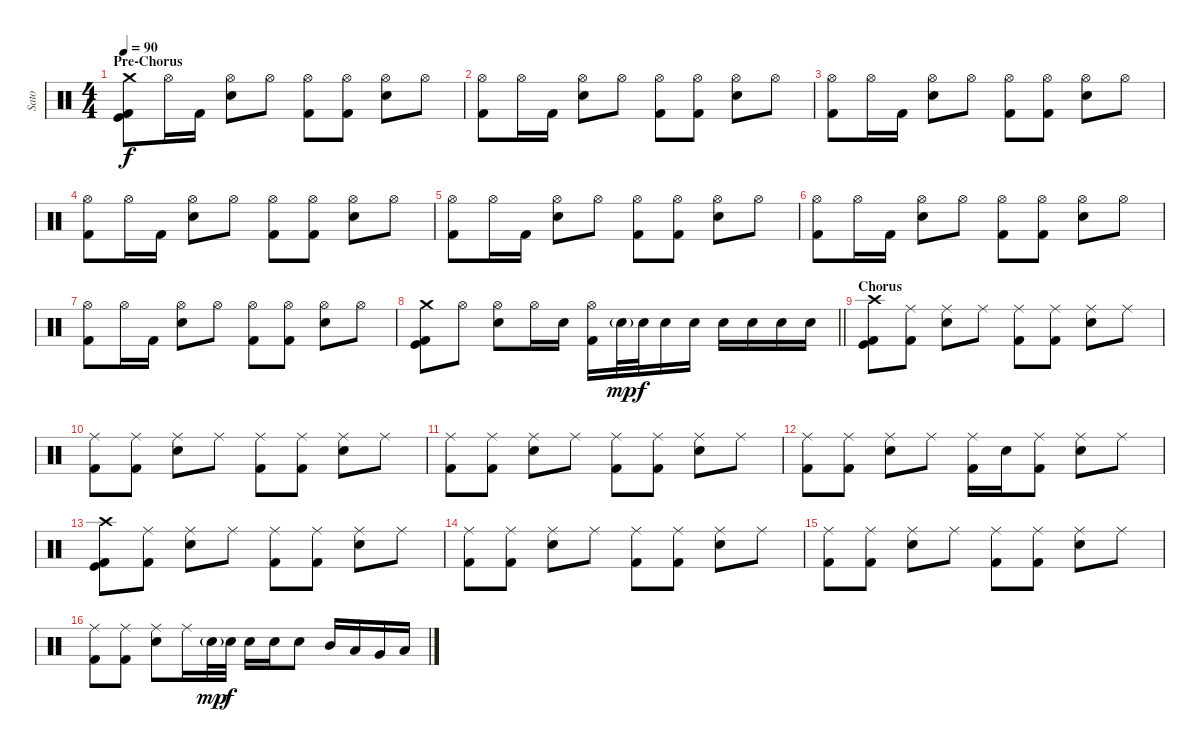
\track ("Sato" "Sato") {instrument percussion}
\staff {score}
\articulation defaults
\ts (4 4)
\section ("" "Pre-Chorus")
\tempo 90
\clef neutral
\ks c
("Crash medium (hit)" "Kick (hit) 2" "Kick (hit)").8{dy f} "Hi-Hat (open)".16 "Kick (hit) 2".16 ("Hi-Hat (open)" "Electric Snare (hit)").8 "Hi-Hat (open)".8 ("Hi-Hat (open)" "Kick (hit) 2").8 ("Hi-Hat (open)" "Kick (hit) 2").8 ("Hi-Hat (open)" "Electric Snare (hit)").8 "Hi-Hat (open)".8 |
("Hi-Hat (open)" "Kick (hit) 2").8 "Hi-Hat (open)".16 "Kick (hit) 2".16 ("Hi-Hat (open)" "Electric Snare (hit)").8 "Hi-Hat (open)".8 ("Hi-Hat (open)" "Kick (hit) 2").8 ("Hi-Hat (open)" "Kick (hit) 2").8 ("Hi-Hat (open)" "Electric Snare (hit)").8 "Hi-Hat (open)".8 |
("Hi-Hat (open)" "Kick (hit) 2").8 "Hi-Hat (open)".16 "Kick (hit) 2".16 ("Hi-Hat (open)" "Electric Snare (hit)").8 "Hi-Hat (open)".8 ("Hi-Hat (open)" "Kick (hit) 2").8 ("Hi-Hat (open)" "Kick (hit) 2").8 ("Hi-Hat (open)" "Electric Snare (hit)").8 "Hi-Hat (open)".8 |
("Hi-Hat (open)" "Kick (hit) 2").8 "Hi-Hat (open)".16 "Kick (hit) 2".16 ("Hi-Hat (open)" "Electric Snare (hit)").8 "Hi-Hat (open)".8 ("Hi-Hat (open)" "Kick (hit) 2").8 ("Hi-Hat (open)" "Kick (hit) 2").8 ("Hi-Hat (open)" "Electric Snare (hit)").8 "Hi-Hat (open)".8 |
("Hi-Hat (open)" "Kick (hit) 2").8 "Hi-Hat (open)".16 "Kick (hit) 2".16 ("Hi-Hat (open)" "Electric Snare (hit)").8 "Hi-Hat (open)".8 ("Hi-Hat (open)" "Kick (hit) 2").8 ("Hi-Hat (open)" "Kick (hit) 2").8 ("Hi-Hat (open)" "Electric Snare (hit)").8 "Hi-Hat (open)".8 |
("Hi-Hat (open)" "Kick (hit) 2").8 "Hi-Hat (open)".16 "Kick (hit) 2".16 ("Hi-Hat (open)" "Electric Snare (hit)").8 "Hi-Hat (open)".8 ("Hi-Hat (open)" "Kick (hit) 2").8 ("Hi-Hat (open)" "Kick (hit) 2").8 ("Hi-Hat (open)" "Electric Snare (hit)").8 "Hi-Hat (open)".8 |
("Hi-Hat (open)" "Kick (hit) 2").8 "Hi-Hat (open)".16 "Kick (hit) 2".16 ("Hi-Hat (open)" "Electric Snare (hit)").8 "Hi-Hat (open)".8 ("Hi-Hat (open)" "Kick (hit) 2").8 ("Hi-Hat (open)" "Kick (hit) 2").8 ("Hi-Hat (open)" "Electric Snare (hit)").8 "Hi-Hat (open)".8 |
\barLineRight lightlight
("Crash medium (hit)" "Kick (hit) 2" "Kick (hit)").8 "Hi-Hat (open)".8 ("Hi-Hat (open)" "Electric Snare (hit)").8 "Hi-Hat (open)".16 "Electric Snare (hit)".16 ("Hi-Hat (open)" "Kick (hit) 2").16 "Electric Snare (hit)"{g}.32{dy mp} "Electric Snare (hit)".32{dy f} "Electric Snare (hit)".16 "Electric Snare (hit)".16 "Electric Snare (hit)".16 "Electric Snare (hit)".16 "Electric Snare (hit)".16 "Electric Snare (hit)".16 |
\section ("" "Chorus")
("Crash high (hit)" "Kick (hit) 2" "Kick (hit)").8 ("Ride (middle)" "Kick (hit) 2").8 ("Ride (middle)" "Electric Snare (hit)").8 "Ride (middle)".8 ("Ride (middle)" "Kick (hit) 2").8 ("Ride (middle)" "Kick (hit) 2").8 ("Ride (middle)" "Electric Snare (hit)").8 "Ride (middle)".8 |
("Ride (middle)" "Kick (hit) 2").8 ("Ride (middle)" "Kick (hit) 2").8 ("Ride (middle)" "Electric Snare (hit)").8 "Ride (middle)".8 ("Ride (middle)" "Kick (hit) 2").8 ("Ride (middle)" "Kick (hit) 2").8 ("Ride (middle)" "Electric Snare (hit)").8 "Ride (middle)".8 |
("Ride (middle)" "Kick (hit) 2").8 ("Ride (middle)" "Kick (hit) 2").8 ("Ride (middle)" "Electric Snare (hit)").8 "Ride (middle)".8 ("Ride (middle)" "Kick (hit) 2").8 ("Ride (middle)" "Kick (hit) 2").8 ("Ride (middle)" "Electric Snare (hit)").8 "Ride (middle)".8 |
("Ride (middle)" "Kick (hit) 2").8 ("Ride (middle)" "Kick (hit) 2").8 ("Ride (middle)" "Electric Snare (hit)").8 "Ride (middle)".8 ("Ride (middle)" "Kick (hit) 2").16 "Electric Snare (hit)".16 ("Ride (middle)" "Kick (hit) 2").8 ("Ride (middle)" "Electric Snare (hit)").8 "Ride (middle)".8 |
("Crash high (hit)" "Kick (hit) 2" "Kick (hit)").8 ("Ride (middle)" "Kick (hit) 2").8 ("Ride (middle)" "Electric Snare (hit)").8 "Ride (middle)".8 ("Ride (middle)" "Kick (hit) 2").8 ("Ride (middle)" "Kick (hit) 2").8 ("Ride (middle)" "Electric Snare (hit)").8 "Ride (middle)".8 |
("Ride (middle)" "Kick (hit) 2").8 ("Ride (middle)" "Kick (hit) 2").8 ("Ride (middle)" "Electric Snare (hit)").8 "Ride (middle)".8 ("Ride (middle)" "Kick (hit) 2").8 ("Ride (middle)" "Kick (hit) 2").8 ("Ride (middle)" "Electric Snare (hit)").8 "Ride (middle)".8 |
("Ride (middle)" "Kick (hit) 2").8 ("Ride (middle)" "Kick (hit) 2").8 ("Ride (middle)" "Electric Snare (hit)").8 "Ride (middle)".8 ("Ride (middle)" "Kick (hit) 2").8 ("Ride (middle)" "Kick (hit) 2").8 ("Ride (middle)" "Electric Snare (hit)").8 "Ride (middle)".8 |
("Ride (middle)" "Kick (hit) 2").8 ("Ride (middle)" "Kick (hit) 2").8 ("Ride (middle)" "Electric Snare (hit)").8 "Ride (middle)".16 "Electric Snare (hit)"{g}.32{dy mp} "Electric Snare (hit)".32{dy f} "Electric Snare (hit)".16 "Electric Snare (hit)".16 "Electric Snare (hit)".8 "Mid Tom (hit)".16 "Low Tom (hit)".16 "Very Low Tom (hit)".16 "Low Floor Tom (hit)".16
